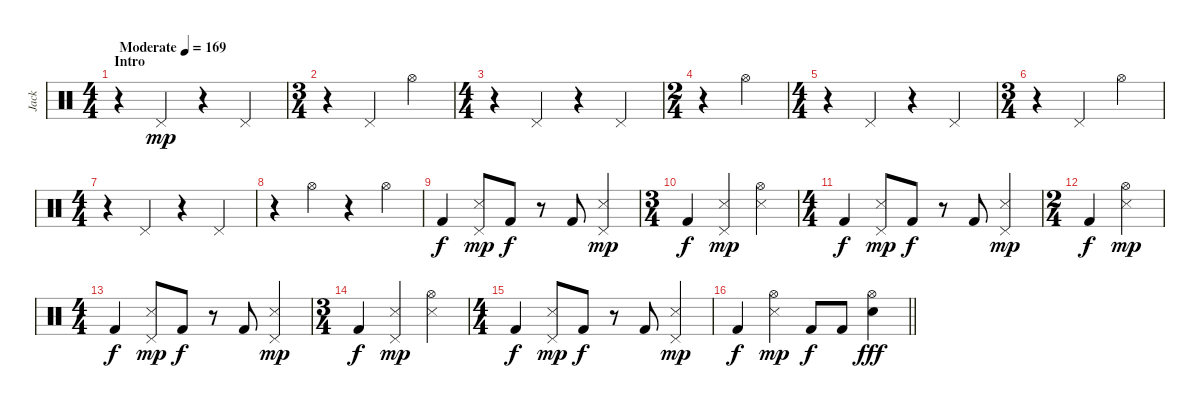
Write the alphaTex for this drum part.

\track ("Jack" "Jack") {instrument percussion}
\staff {score}
\articulation defaults
\ts (4 4)
\section ("" "Intro")
\tempo (169 "Moderate")
\clef neutral
\ks aminor
r.4{dy mp} "Pedal Hi-Hat (hit)".4 r.4 "Pedal Hi-Hat (hit)".4 |
\ts (3 4)
r.4 "Pedal Hi-Hat (hit)".4 "Hi-Hat (open)".4 |
\ts (4 4)
r.4 "Pedal Hi-Hat (hit)".4 r.4 "Pedal Hi-Hat (hit)".4 |
\ts (2 4)
r.4 "Hi-Hat (open)".4 |
\ts (4 4)
r.4 "Pedal Hi-Hat (hit)".4 r.4 "Pedal Hi-Hat (hit)".4 |
\ts (3 4)
r.4 "Pedal Hi-Hat (hit)".4 "Hi-Hat (open)".4 |
\ts (4 4)
r.4 "Pedal Hi-Hat (hit)".4 r.4 "Pedal Hi-Hat (hit)".4 |
r.4 "Hi-Hat (open)".4 r.4 "Hi-Hat (open)".4 |
"Kick (hit) 2".4{dy f} ("Pedal Hi-Hat (hit)" "Snare (side stick) 3").8{dy mp} "Kick (hit) 2".8{dy f} r.8 "Kick (hit) 2".8 ("Pedal Hi-Hat (hit)" "Snare (side stick) 3").4{dy mp} |
\ts (3 4)
"Kick (hit) 2".4{dy f} ("Pedal Hi-Hat (hit)" "Snare (side stick) 3").4{dy mp} ("Hi-Hat (open)" "Snare (side stick) 3").4 |
\ts (4 4)
"Kick (hit) 2".4{dy f} ("Pedal Hi-Hat (hit)" "Snare (side stick) 3").8{dy mp} "Kick (hit) 2".8{dy f} r.8 "Kick (hit) 2".8 ("Pedal Hi-Hat (hit)" "Snare (side stick) 3").4{dy mp} |
\ts (2 4)
"Kick (hit) 2".4{dy f} ("Hi-Hat (open)" "Snare (side stick) 3").4{dy mp} |
\ts (4 4)
"Kick (hit) 2".4{dy f} ("Pedal Hi-Hat (hit)" "Snare (side stick) 3").8{dy mp} "Kick (hit) 2".8{dy f} r.8 "Kick (hit) 2".8 ("Pedal Hi-Hat (hit)" "Snare (side stick) 3").4{dy mp} |
\ts (3 4)
"Kick (hit) 2".4{dy f} ("Pedal Hi-Hat (hit)" "Snare (side stick) 3").4{dy mp} ("Hi-Hat (open)" "Snare (side stick) 3").4 |
\ts (4 4)
"Kick (hit) 2".4{dy f} ("Pedal Hi-Hat (hit)" "Snare (side stick) 3").8{dy mp} "Kick (hit) 2".8{dy f} r.8 "Kick (hit) 2".8 ("Pedal Hi-Hat (hit)" "Snare (side stick) 3").4{dy mp} |
\barLineRight lightlight "Kick (hit) 2".4{dy f}
("Hi-Hat (open)" "Snare (side stick) 3").4{dy mp} "Kick (hit) 2".8{dy f} "Kick (hit) 2".8 ("Hi-Hat (open)" "Electric Snare (hit)").4{dy fff}
